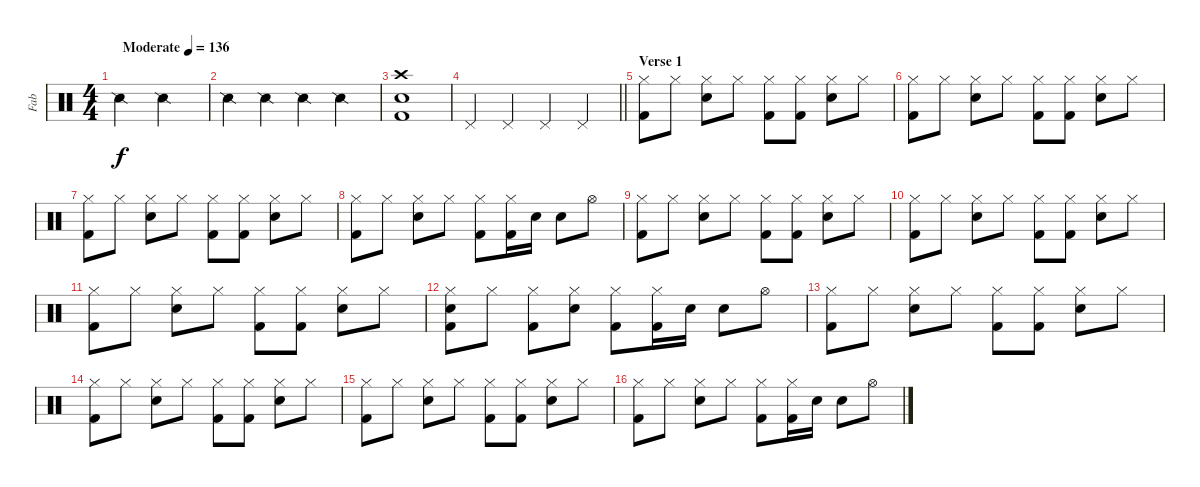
\track ("Fab" "Fab") {instrument percussion}
\staff {score}
\articulation defaults
\ts (4 4)
\tempo (136 "Moderate")
\clef neutral
\ks c "Snare (side stick) 2".2{dy f} "Snare (side stick) 2".2
|
"Snare (side stick) 2".4 "Snare (side stick) 2".4 "Snare (side stick) 2".4 "Snare (side stick) 2".4 |
("Crash high (hit)" "Snare (hit) 2" "Kick (hit) 2").1 |
\barLineRight lightlight "Pedal Hi-Hat (hit)".4 "Pedal Hi-Hat (hit)".4 "Pedal Hi-Hat (hit)".4 "Pedal Hi-Hat (hit)".4
|
\section ("" "Verse 1")
("Hi-Hat (closed)" "Kick (hit) 2").8 "Hi-Hat (closed)".8 ("Hi-Hat (closed)" "Snare (hit) 2").8 "Hi-Hat (closed)".8 ("Hi-Hat (closed)" "Kick (hit) 2").8 ("Hi-Hat (closed)" "Kick (hit) 2").8 ("Hi-Hat (closed)" "Snare (hit) 2").8 "Hi-Hat (closed)".8 |
("Hi-Hat (closed)" "Kick (hit) 2").8 "Hi-Hat (closed)".8 ("Hi-Hat (closed)" "Snare (hit) 2").8 "Hi-Hat (closed)".8 ("Hi-Hat (closed)" "Kick (hit) 2").8 ("Hi-Hat (closed)" "Kick (hit) 2").8 ("Hi-Hat (closed)" "Snare (hit) 2").8 "Hi-Hat (closed)".8 |
("Hi-Hat (closed)" "Kick (hit) 2").8 "Hi-Hat (closed)".8 ("Hi-Hat (closed)" "Snare (hit) 2").8 "Hi-Hat (closed)".8 ("Hi-Hat (closed)" "Kick (hit) 2").8 ("Hi-Hat (closed)" "Kick (hit) 2").8 ("Hi-Hat (closed)" "Snare (hit) 2").8 "Hi-Hat (closed)".8 |
("Hi-Hat (closed)" "Kick (hit) 2").8 "Hi-Hat (closed)".8 ("Hi-Hat (closed)" "Snare (hit) 2").8 "Hi-Hat (closed)".8 ("Hi-Hat (closed)" "Kick (hit) 2").8 ("Hi-Hat (closed)" "Kick (hit) 2").16 "Snare (hit) 2".16 "Snare (hit) 2".8 "Hi-Hat (open)".8 |
("Hi-Hat (closed)" "Kick (hit) 2").8 "Hi-Hat (closed)".8 ("Hi-Hat (closed)" "Snare (hit) 2").8 "Hi-Hat (closed)".8 ("Hi-Hat (closed)" "Kick (hit) 2").8 ("Hi-Hat (closed)" "Kick (hit) 2").8 ("Hi-Hat (closed)" "Snare (hit) 2").8 "Hi-Hat (closed)".8 |
("Hi-Hat (closed)" "Kick (hit) 2").8 "Hi-Hat (closed)".8 ("Hi-Hat (closed)" "Snare (hit) 2").8 "Hi-Hat (closed)".8 ("Hi-Hat (closed)" "Kick (hit) 2").8 ("Hi-Hat (closed)" "Kick (hit) 2").8 ("Hi-Hat (closed)" "Snare (hit) 2").8 "Hi-Hat (closed)".8 |
("Hi-Hat (closed)" "Kick (hit) 2").8 "Hi-Hat (closed)".8 ("Hi-Hat (closed)" "Snare (hit) 2").8 "Hi-Hat (closed)".8 ("Hi-Hat (closed)" "Kick (hit) 2").8 ("Hi-Hat (closed)" "Kick (hit) 2").8 ("Hi-Hat (closed)" "Snare (hit) 2").8 "Hi-Hat (closed)".8 |
("Hi-Hat (closed)" "Snare (hit) 2" "Kick (hit) 2").8 "Hi-Hat (closed)".8 ("Hi-Hat (closed)" "Kick (hit) 2").8 ("Hi-Hat (closed)" "Snare (hit) 2").8 ("Hi-Hat (closed)" "Kick (hit) 2").8 ("Hi-Hat (closed)" "Kick (hit) 2").16 "Snare (hit) 2".16 "Snare (hit) 2".8 "Hi-Hat (open)".8 |
("Hi-Hat (closed)" "Kick (hit) 2").8 "Hi-Hat (closed)".8 ("Hi-Hat (closed)" "Snare (hit) 2").8 "Hi-Hat (closed)".8 ("Hi-Hat (closed)" "Kick (hit) 2").8 ("Hi-Hat (closed)" "Kick (hit) 2").8 ("Hi-Hat (closed)" "Snare (hit) 2").8 "Hi-Hat (closed)".8 |
("Hi-Hat (closed)" "Kick (hit) 2").8 "Hi-Hat (closed)".8 ("Hi-Hat (closed)" "Snare (hit) 2").8 "Hi-Hat (closed)".8 ("Hi-Hat (closed)" "Kick (hit) 2").8 ("Hi-Hat (closed)" "Kick (hit) 2").8 ("Hi-Hat (closed)" "Snare (hit) 2").8 "Hi-Hat (closed)".8 |
("Hi-Hat (closed)" "Kick (hit) 2").8 "Hi-Hat (closed)".8 ("Hi-Hat (closed)" "Snare (hit) 2").8 "Hi-Hat (closed)".8 ("Hi-Hat (closed)" "Kick (hit) 2").8 ("Hi-Hat (closed)" "Kick (hit) 2").8 ("Hi-Hat (closed)" "Snare (hit) 2").8 "Hi-Hat (closed)".8 |
("Hi-Hat (closed)" "Kick (hit) 2").8 "Hi-Hat (closed)".8 ("Hi-Hat (closed)" "Snare (hit) 2").8 "Hi-Hat (closed)".8 ("Hi-Hat (closed)" "Kick (hit) 2").8 ("Hi-Hat (closed)" "Kick (hit) 2").16 "Snare (hit) 2".16 "Snare (hit) 2".8 "Hi-Hat (open)".8
